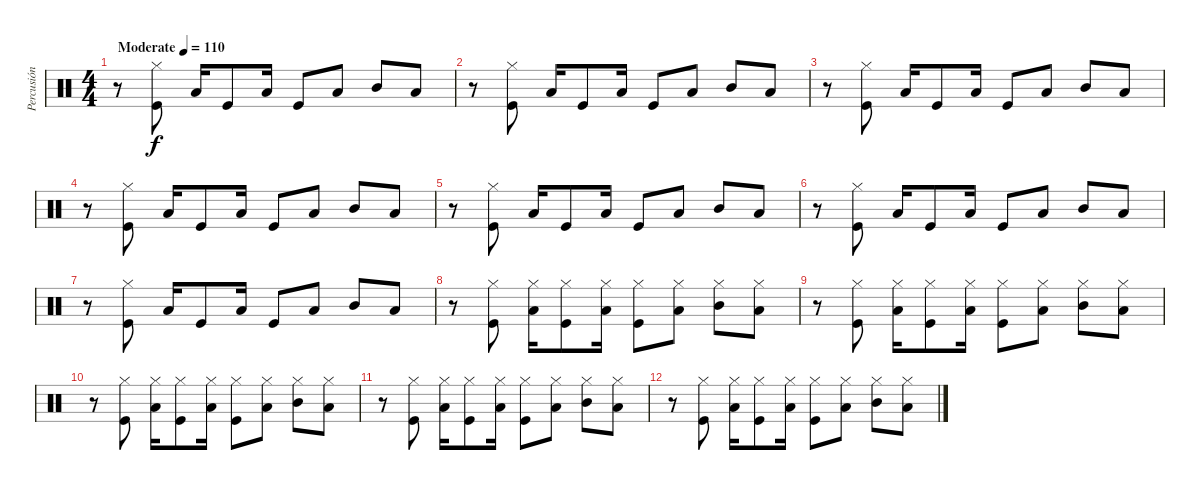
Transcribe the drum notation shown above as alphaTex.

\track ("Percusión" "Percusión") {instrument percussion}
\staff {score}
\articulation defaults
\ts (4 4)
\tempo (110 "Moderate")
\clef neutral
\ks c
r.8{dy f} ("Hi-Hat (closed)" "Kick (hit)").8 "Low Floor Tom (hit)".16 "Kick (hit)".8 "Low Floor Tom (hit)".16 "Kick (hit)".8 "Low Floor Tom (hit)".8 "Mid Tom (hit)".8 "Low Floor Tom (hit)".8 |
r.8 ("Hi-Hat (closed)" "Kick (hit)").8 "Low Floor Tom (hit)".16 "Kick (hit)".8 "Low Floor Tom (hit)".16 "Kick (hit)".8 "Low Floor Tom (hit)".8 "Mid Tom (hit)".8 "Low Floor Tom (hit)".8 |
r.8 ("Hi-Hat (closed)" "Kick (hit)").8 "Low Floor Tom (hit)".16 "Kick (hit)".8 "Low Floor Tom (hit)".16 "Kick (hit)".8 "Low Floor Tom (hit)".8 "Mid Tom (hit)".8 "Low Floor Tom (hit)".8 |
r.8 ("Hi-Hat (closed)" "Kick (hit)").8 "Low Floor Tom (hit)".16 "Kick (hit)".8 "Low Floor Tom (hit)".16 "Kick (hit)".8 "Low Floor Tom (hit)".8 "Mid Tom (hit)".8 "Low Floor Tom (hit)".8 |
r.8 ("Hi-Hat (closed)" "Kick (hit)").8 "Low Floor Tom (hit)".16 "Kick (hit)".8 "Low Floor Tom (hit)".16 "Kick (hit)".8 "Low Floor Tom (hit)".8 "Mid Tom (hit)".8 "Low Floor Tom (hit)".8 |
r.8 ("Hi-Hat (closed)" "Kick (hit)").8 "Low Floor Tom (hit)".16 "Kick (hit)".8 "Low Floor Tom (hit)".16 "Kick (hit)".8 "Low Floor Tom (hit)".8 "Mid Tom (hit)".8 "Low Floor Tom (hit)".8 |
r.8 ("Hi-Hat (closed)" "Kick (hit)").8 "Low Floor Tom (hit)".16 "Kick (hit)".8 "Low Floor Tom (hit)".16 "Kick (hit)".8 "Low Floor Tom (hit)".8 "Mid Tom (hit)".8 "Low Floor Tom (hit)".8 |
r.8 ("Hi-Hat (closed)" "Kick (hit)").8 ("Hi-Hat (closed)" "Low Floor Tom (hit)").16 ("Hi-Hat (closed)" "Kick (hit)").8 ("Hi-Hat (closed)" "Low Floor Tom (hit)").16 ("Hi-Hat (closed)" "Kick (hit)").8 ("Hi-Hat (closed)" "Low Floor Tom (hit)").8 ("Hi-Hat (closed)" "Mid Tom (hit)").8 ("Hi-Hat (closed)" "Low Floor Tom (hit)").8 |
r.8 ("Hi-Hat (closed)" "Kick (hit)").8 ("Hi-Hat (closed)" "Low Floor Tom (hit)").16 ("Hi-Hat (closed)" "Kick (hit)").8 ("Hi-Hat (closed)" "Low Floor Tom (hit)").16 ("Hi-Hat (closed)" "Kick (hit)").8 ("Hi-Hat (closed)" "Low Floor Tom (hit)").8 ("Hi-Hat (closed)" "Mid Tom (hit)").8 ("Hi-Hat (closed)" "Low Floor Tom (hit)").8 |
r.8 ("Hi-Hat (closed)" "Kick (hit)").8 ("Hi-Hat (closed)" "Low Floor Tom (hit)").16 ("Hi-Hat (closed)" "Kick (hit)").8 ("Hi-Hat (closed)" "Low Floor Tom (hit)").16 ("Hi-Hat (closed)" "Kick (hit)").8 ("Hi-Hat (closed)" "Low Floor Tom (hit)").8 ("Hi-Hat (closed)" "Mid Tom (hit)").8 ("Hi-Hat (closed)" "Low Floor Tom (hit)").8 |
r.8 ("Hi-Hat (closed)" "Kick (hit)").8 ("Hi-Hat (closed)" "Low Floor Tom (hit)").16 ("Hi-Hat (closed)" "Kick (hit)").8 ("Hi-Hat (closed)" "Low Floor Tom (hit)").16 ("Hi-Hat (closed)" "Kick (hit)").8 ("Hi-Hat (closed)" "Low Floor Tom (hit)").8 ("Hi-Hat (closed)" "Mid Tom (hit)").8 ("Hi-Hat (closed)" "Low Floor Tom (hit)").8 |
r.8 ("Hi-Hat (closed)" "Kick (hit)").8 ("Hi-Hat (closed)" "Low Floor Tom (hit)").16 ("Hi-Hat (closed)" "Kick (hit)").8 ("Hi-Hat (closed)" "Low Floor Tom (hit)").16 ("Hi-Hat (closed)" "Kick (hit)").8 ("Hi-Hat (closed)" "Low Floor Tom (hit)").8 ("Hi-Hat (closed)" "Mid Tom (hit)").8 ("Hi-Hat (closed)" "Low Floor Tom (hit)").8
